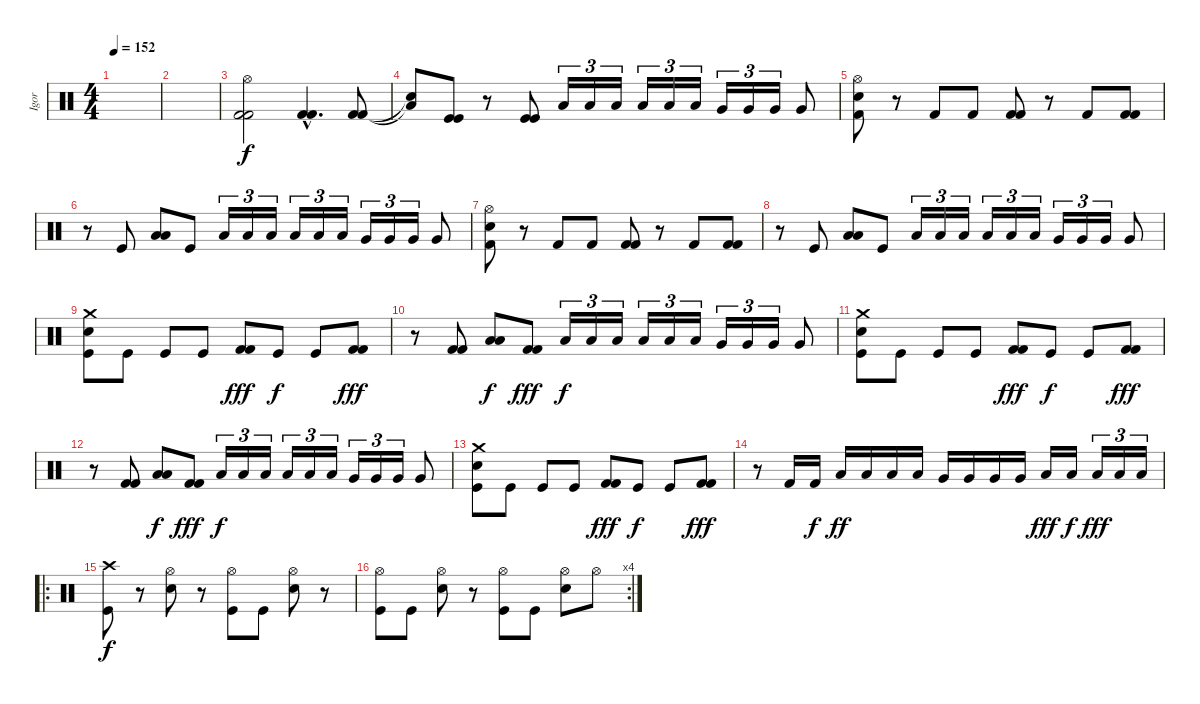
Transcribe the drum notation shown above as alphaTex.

\track ("Igor" "Igor") {instrument percussion}
\staff {score}
\articulation defaults
\ts (4 4)
\tempo 152
\clef neutral
\ks c
|
|
("Hi-Hat (open)" "Kick (hit) 2" "Kick (hit) 2").2 ("Kick (hit) 2"{hac} "Kick (hit) 2"{hac}).4{d} ("Kick (hit) 2" "Kick (hit) 2").8 |
("Low Floor Tom (hit)"{t} "Snare (hit)"{t}).8 ("Kick (hit)" "Kick (hit)").8 r.8 ("Kick (hit)" "Kick (hit)").8 "Low Tom (hit)".16{tu (3 2)} "Low Tom (hit)".16{tu (3 2)} "Low Tom (hit)".16{tu (3 2)} "Low Tom (hit)".16{tu (3 2)} "Low Tom (hit)".16{tu (3 2)} "Low Tom (hit)".16{tu (3 2)} "Very Low Tom (hit)".16{tu (3 2)} "Very Low Tom (hit)".16{tu (3 2)} "Very Low Tom (hit)".16{tu (3 2)} "Very Low Tom (hit)".8 |
("Hi-Hat (open)" "Kick (hit) 2" "Snare (hit) 2").8 r.8 "Kick (hit) 2".8 "Kick (hit) 2".8 ("Kick (hit) 2" "Kick (hit) 2").8 r.8 "Kick (hit) 2".8 ("Kick (hit) 2" "Kick (hit) 2").8 |
r.8 "Kick (hit)".8 ("Low Floor Tom (hit)" "Low Floor Tom (hit)").8 "Kick (hit)".8 "Low Tom (hit)".16{tu (3 2)} "Low Tom (hit)".16{tu (3 2)} "Low Tom (hit)".16{tu (3 2)} "Low Tom (hit)".16{tu (3 2)} "Low Tom (hit)".16{tu (3 2)} "Low Tom (hit)".16{tu (3 2)} "Very Low Tom (hit)".16{tu (3 2)} "Very Low Tom (hit)".16{tu (3 2)} "Very Low Tom (hit)".16{tu (3 2)} "Very Low Tom (hit)".8 |
("Hi-Hat (open)" "Kick (hit) 2" "Snare (hit) 2").8 r.8 "Kick (hit) 2".8 "Kick (hit) 2".8 ("Kick (hit) 2" "Kick (hit) 2").8 r.8 "Kick (hit) 2".8 ("Kick (hit) 2" "Kick (hit) 2").8 |
r.8 "Kick (hit)".8 ("Low Floor Tom (hit)" "Low Floor Tom (hit)").8 "Kick (hit)".8 "Low Tom (hit)".16{tu (3 2)} "Low Tom (hit)".16{tu (3 2)} "Low Tom (hit)".16{tu (3 2)} "Low Tom (hit)".16{tu (3 2)} "Low Tom (hit)".16{tu (3 2)} "Low Tom (hit)".16{tu (3 2)} "Very Low Tom (hit)".16{tu (3 2)} "Very Low Tom (hit)".16{tu (3 2)} "Very Low Tom (hit)".16{tu (3 2)} "Very Low Tom (hit)".8 |
("Crash medium (hit)" "Kick (hit)" "Snare (hit) 2").8 "Kick (hit)".8 "Kick (hit)".8 "Kick (hit)".8 ("Kick (hit) 2" "Kick (hit) 2").8{dy fff} "Kick (hit)".8{dy f} "Kick (hit)".8 ("Kick (hit) 2" "Kick (hit) 2").8{dy fff} |
r.8 ("Kick (hit) 2" "Kick (hit) 2").8 ("Low Floor Tom (hit)" "Low Floor Tom (hit)").8{dy f} ("Kick (hit) 2" "Kick (hit) 2").8{dy fff} "Low Tom (hit)".16{tu (3 2) dy f} "Low Tom (hit)".16{tu (3 2)} "Low Tom (hit)".16{tu (3 2)} "Low Tom (hit)".16{tu (3 2)} "Low Tom (hit)".16{tu (3 2)} "Low Tom (hit)".16{tu (3 2)} "Very Low Tom (hit)".16{tu (3 2)} "Very Low Tom (hit)".16{tu (3 2)} "Very Low Tom (hit)".16{tu (3 2)} "Very Low Tom (hit)".8 |
("Crash medium (hit)" "Kick (hit)" "Snare (hit) 2").8 "Kick (hit)".8 "Kick (hit)".8 "Kick (hit)".8 ("Kick (hit) 2" "Kick (hit) 2").8{dy fff} "Kick (hit)".8{dy f} "Kick (hit)".8 ("Kick (hit) 2" "Kick (hit) 2").8{dy fff} |
r.8 ("Kick (hit) 2" "Kick (hit) 2").8 ("Low Floor Tom (hit)" "Low Floor Tom (hit)").8{dy f} ("Kick (hit) 2" "Kick (hit) 2").8{dy fff} "Low Tom (hit)".16{tu (3 2) dy f} "Low Tom (hit)".16{tu (3 2)} "Low Tom (hit)".16{tu (3 2)} "Low Tom (hit)".16{tu (3 2)} "Low Tom (hit)".16{tu (3 2)} "Low Tom (hit)".16{tu (3 2)} "Very Low Tom (hit)".16{tu (3 2)} "Very Low Tom (hit)".16{tu (3 2)} "Very Low Tom (hit)".16{tu (3 2)} "Very Low Tom (hit)".8 |
("Crash medium (hit)" "Kick (hit)" "Snare (hit) 2").8 "Kick (hit)".8 "Kick (hit)".8 "Kick (hit)".8 ("Kick (hit) 2" "Kick (hit) 2").8{dy fff} "Kick (hit)".8{dy f} "Kick (hit)".8 ("Kick (hit) 2" "Kick (hit) 2").8{dy fff} |
r.8 "Kick (hit) 2".16 "Kick (hit) 2".16{dy f} "Low Tom (hit)".16{dy ff} "Low Tom (hit)".16 "Low Tom (hit)".16 "Low Tom (hit)".16 "Very Low Tom (hit)".16 "Very Low Tom (hit)".16 "Very Low Tom (hit)".16 "Very Low Tom (hit)".16 "Low Floor Tom (hit)".16{dy fff} "Low Floor Tom (hit)".16{dy f} "Low Floor Tom (hit)".16{tu (3 2) dy fff} "Low Floor Tom (hit)".16{tu (3 2)} "Low Floor Tom (hit)".16{tu (3 2)} |
\ro
("Crash high (hit)" "Kick (hit)").8{dy f} r.8 ("Hi-Hat (open)" "Snare (hit) 2").8 r.8 ("Hi-Hat (open)" "Kick (hit)").8 "Kick (hit)".8 ("Hi-Hat (open)" "Snare (hit) 2").8 r.8 |
\rc 4
("Hi-Hat (open)" "Kick (hit)").8 "Kick (hit)".8 ("Hi-Hat (open)" "Snare (hit) 2").8 r.8 ("Hi-Hat (open)" "Kick (hit)").8 "Kick (hit)".8 ("Hi-Hat (open)" "Snare (hit) 2").8 "Hi-Hat (open)".8
